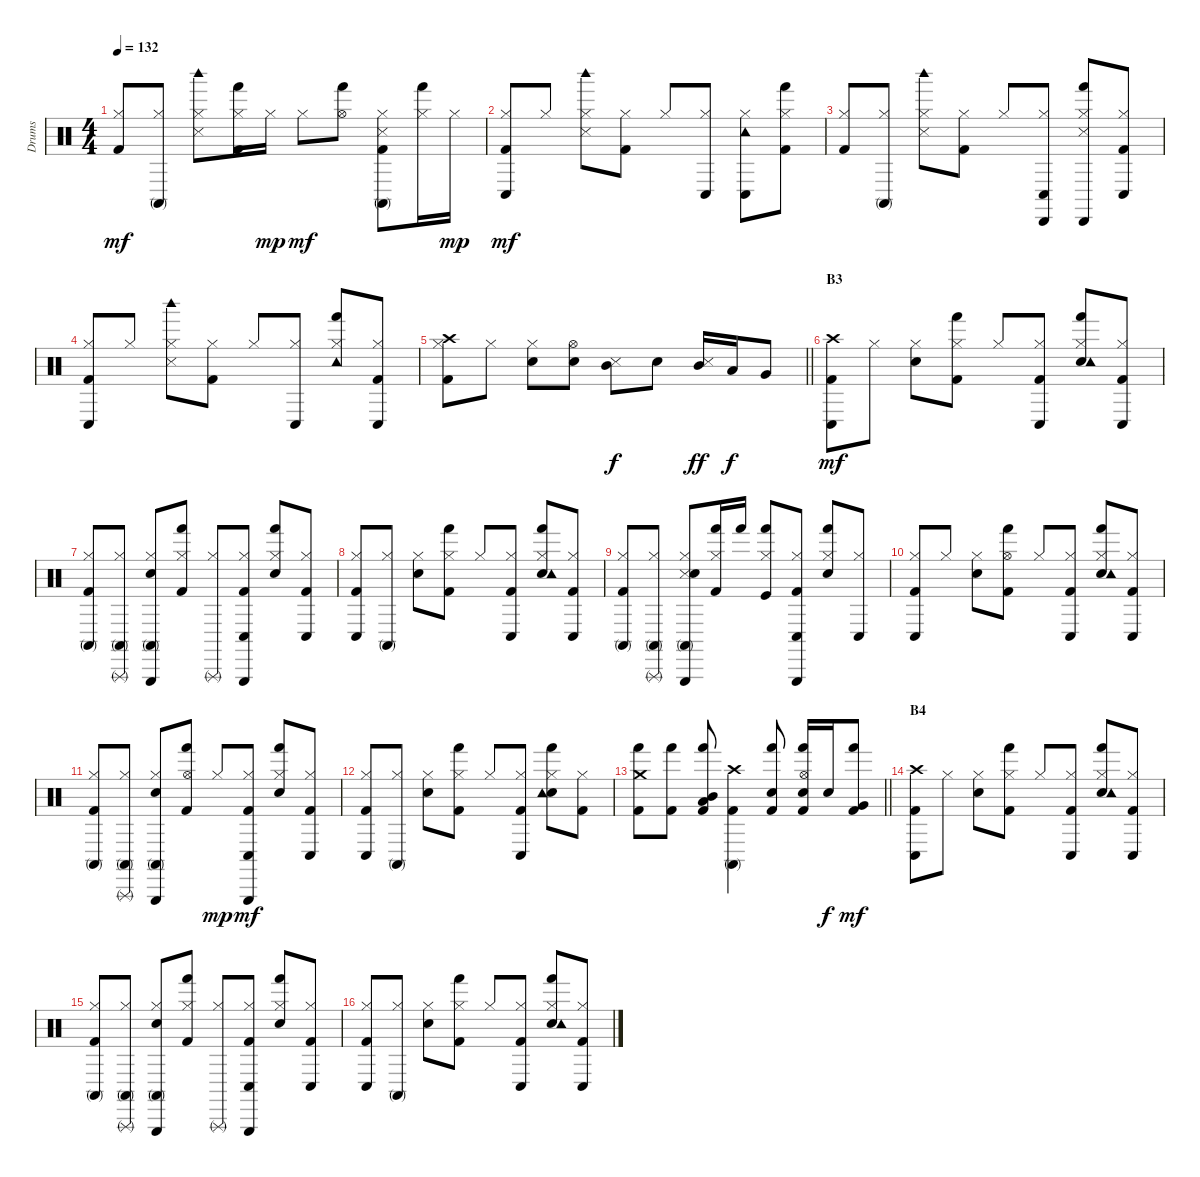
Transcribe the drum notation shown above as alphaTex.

\track ("Drums" "Drums") {instrument percussion}
\staff {score}
\articulation defaults
\ts (4 4)
\tempo 132
\clef neutral
\ks c
("Hi-Hat (closed)" "Kick (hit) 2").8{dy mf} ("Hi-Hat (closed)" "Conga high (mute)").8 ("Hi-Hat (closed)" "Snare (side stick) 3" "Woodblock high (hit)").8 ("Hi-Hat (closed)" "Kick (hit) 2" "Hand (hit)").16 "Hi-Hat (closed)".16{dy mp} "Hi-Hat (closed)".8{dy mf} ("Hi-Hat (open)" "Hand (hit)").8 ("Hi-Hat (closed)" "Snare (side stick) 3" "Kick (hit) 2" "Conga high (mute)").8 ("Hi-Hat (closed)" "Hand (hit)").16 "Hi-Hat (closed)".16{dy mp} |
("Hi-Hat (closed)" "Kick (hit) 2" "Conga low (hit)").8{dy mf} "Hi-Hat (closed)".8 ("Hi-Hat (closed)" "Snare (side stick) 3" "Woodblock high (hit)").8 ("Hi-Hat (closed)" "Kick (hit) 2").8 "Hi-Hat (closed)".8 ("Hi-Hat (closed)" "Conga low (hit)").8 ("Hi-Hat (closed)" "Tambourine (hit)" "Conga low (hit)").8 ("Hi-Hat (closed)" "Kick (hit) 2" "Hand (hit)").8 |
("Hi-Hat (closed)" "Kick (hit) 2").8 ("Hi-Hat (closed)" "Conga high (mute)").8 ("Hi-Hat (closed)" "Snare (side stick) 3" "Woodblock high (hit)").8 ("Hi-Hat (closed)" "Kick (hit) 2").8 "Hi-Hat (closed)".8 ("Hi-Hat (closed)" "Cabasa (hit)" "Conga low (hit)").8 ("Hi-Hat (closed)" "Snare (side stick) 3" "Cabasa (hit)" "Hand (hit)").8 ("Hi-Hat (closed)" "Kick (hit) 2" "Conga low (hit)").8 |
("Hi-Hat (closed)" "Kick (hit) 2" "Conga low (hit)").8 "Hi-Hat (closed)".8 ("Hi-Hat (closed)" "Snare (side stick) 3" "Woodblock high (hit)").8 ("Hi-Hat (closed)" "Kick (hit) 2").8 "Hi-Hat (closed)".8 ("Hi-Hat (closed)" "Conga low (hit)").8 ("Hi-Hat (closed)" "Tambourine (hit)" "Hand (hit)").8 ("Hi-Hat (closed)" "Kick (hit) 2" "Conga low (hit)").8 |
\barLineRight lightlight
("Hi-Hat (closed)" "Crash high (hit)" "Kick (hit) 2").8 "Hi-Hat (closed)".8 ("Hi-Hat (closed)" "Electric Snare (hit)").8 ("Hi-Hat (open)" "Electric Snare (hit)").8 ("Snare (side stick) 3" "Mid Tom (hit)").8{dy f} "Electric Snare (hit)".8 ("Snare (side stick) 3" "Mid Tom (hit)").16{dy ff} "Low Tom (hit)".16{dy f} "Very Low Tom (hit)".8 |
\section ("" "B3")
("Crash high (hit)" "Kick (hit) 2" "Conga low (hit)").8{dy mf} "Hi-Hat (closed)".8 ("Hi-Hat (closed)" "Electric Snare (hit)").8 ("Hi-Hat (closed)" "Kick (hit) 2" "Hand (hit)").8 "Hi-Hat (closed)".8 ("Hi-Hat (closed)" "Kick (hit) 2" "Conga low (hit)").8 ("Hi-Hat (closed)" "Electric Snare (hit)" "Tambourine (hit)" "Hand (hit)").8 ("Hi-Hat (closed)" "Kick (hit) 2" "Conga low (hit)").8 |
("Hi-Hat (closed)" "Kick (hit) 2" "Conga high (mute)").8 ("Hi-Hat (closed)" "Triangle (rnute)" "Conga high (mute)").8 ("Hi-Hat (closed)" "Electric Snare (hit)" "Triangle (hit)" "Conga high (mute)").8 ("Hi-Hat (closed)" "Kick (hit) 2" "Hand (hit)").8 ("Hi-Hat (closed)" "Triangle (rnute)").8 ("Hi-Hat (closed)" "Kick (hit) 2" "Triangle (hit)" "Conga low (hit)").8 ("Hi-Hat (closed)" "Electric Snare (hit)" "Hand (hit)").8 ("Hi-Hat (closed)" "Kick (hit) 2" "Conga low (hit)").8 |
("Hi-Hat (closed)" "Kick (hit) 2" "Conga low (hit)").8 ("Hi-Hat (closed)" "Conga high (mute)").8 ("Hi-Hat (closed)" "Electric Snare (hit)").8 ("Hi-Hat (closed)" "Kick (hit) 2" "Hand (hit)").8 "Hi-Hat (closed)".8 ("Hi-Hat (closed)" "Kick (hit) 2" "Conga low (hit)").8 ("Hi-Hat (closed)" "Electric Snare (hit)" "Tambourine (hit)" "Hand (hit)").8 ("Hi-Hat (closed)" "Kick (hit) 2" "Conga low (hit)").8 |
("Hi-Hat (closed)" "Kick (hit) 2" "Conga high (mute)").8 ("Hi-Hat (closed)" "Triangle (rnute)" "Conga high (mute)").8 ("Hi-Hat (closed)" "Snare (side stick) 3" "Electric Snare (hit)" "Triangle (hit)" "Conga high (mute)").8 ("Hi-Hat (closed)" "Kick (hit) 2" "Hand (hit)").16 "Hand (hit)".16 ("Hi-Hat (closed)" "Kick (hit)" "Hand (hit)").8 ("Hi-Hat (closed)" "Kick (hit) 2" "Triangle (hit)" "Conga low (hit)").8 ("Hi-Hat (closed)" "Electric Snare (hit)" "Hand (hit)").8 ("Hi-Hat (closed)" "Conga low (hit)").8 |
("Hi-Hat (closed)" "Kick (hit) 2" "Conga low (hit)").8 "Hi-Hat (closed)".8 ("Hi-Hat (closed)" "Electric Snare (hit)").8 ("Hi-Hat (open)" "Kick (hit) 2" "Hand (hit)").8 "Hi-Hat (closed)".8 ("Hi-Hat (closed)" "Kick (hit) 2" "Conga low (hit)").8 ("Hi-Hat (closed)" "Electric Snare (hit)" "Tambourine (hit)" "Hand (hit)").8 ("Hi-Hat (closed)" "Kick (hit) 2" "Conga low (hit)").8 |
("Hi-Hat (closed)" "Kick (hit) 2" "Conga high (mute)").8 ("Hi-Hat (closed)" "Triangle (rnute)" "Conga high (mute)").8 ("Hi-Hat (closed)" "Electric Snare (hit)" "Triangle (hit)" "Conga high (mute)").8 ("Hi-Hat (open)" "Kick (hit) 2" "Hand (hit)").8 "Hi-Hat (closed)".8{dy mp} ("Hi-Hat (closed)" "Kick (hit) 2" "Triangle (hit)" "Conga low (hit)").8{dy mf} ("Hi-Hat (closed)" "Electric Snare (hit)" "Hand (hit)").8 ("Hi-Hat (closed)" "Kick (hit) 2" "Conga low (hit)").8 |
("Hi-Hat (closed)" "Kick (hit) 2" "Conga low (hit)").8 ("Hi-Hat (closed)" "Conga high (mute)").8 ("Hi-Hat (closed)" "Electric Snare (hit)").8 ("Hi-Hat (closed)" "Kick (hit) 2" "Hand (hit)").8 "Hi-Hat (closed)".8 ("Hi-Hat (closed)" "Kick (hit) 2" "Conga low (hit)").8 ("Hi-Hat (closed)" "Electric Snare (hit)" "Tambourine (hit)" "Hand (hit)").8 ("Hi-Hat (closed)" "Kick (hit) 2").8 |
\barLineRight lightlight
("Crash medium (hit)" "Kick (hit) 2" "Hand (hit)").8 ("Kick (hit) 2" "Hand (hit)").8 ("Low Tom (hit)" "Kick (hit) 2" "Mid Tom (hit)" "Hand (hit)").8 ("Crash high (hit)" "Kick (hit) 2" "Conga high (mute)").4 ("Electric Snare (hit)" "Kick (hit) 2" "Hand (hit)").8 ("Hi-Hat (open)" "Electric Snare (hit)" "Kick (hit) 2" "Hand (hit)").16 "Electric Snare (hit)".16{dy f} ("Kick (hit) 2" "Very Low Tom (hit)" "Hand (hit)").8{dy mf} |
\section ("" "B4")
("Crash high (hit)" "Kick (hit) 2" "Conga low (hit)").8 "Hi-Hat (closed)".8 ("Hi-Hat (closed)" "Electric Snare (hit)").8 ("Hi-Hat (closed)" "Kick (hit) 2" "Hand (hit)").8 "Hi-Hat (closed)".8 ("Hi-Hat (closed)" "Kick (hit) 2" "Conga low (hit)").8 ("Hi-Hat (closed)" "Electric Snare (hit)" "Tambourine (hit)" "Hand (hit)").8 ("Hi-Hat (closed)" "Kick (hit) 2" "Conga low (hit)").8 |
("Hi-Hat (closed)" "Kick (hit) 2" "Conga high (mute)").8 ("Hi-Hat (closed)" "Triangle (rnute)" "Conga high (mute)").8 ("Hi-Hat (closed)" "Electric Snare (hit)" "Triangle (hit)" "Conga high (mute)").8 ("Hi-Hat (closed)" "Kick (hit) 2" "Hand (hit)").8 ("Hi-Hat (closed)" "Triangle (rnute)").8 ("Hi-Hat (closed)" "Kick (hit) 2" "Triangle (hit)" "Conga low (hit)").8 ("Hi-Hat (closed)" "Electric Snare (hit)" "Hand (hit)").8 ("Hi-Hat (closed)" "Kick (hit) 2" "Conga low (hit)").8 |
("Hi-Hat (closed)" "Kick (hit) 2" "Conga low (hit)").8 ("Hi-Hat (closed)" "Conga high (mute)").8 ("Hi-Hat (closed)" "Electric Snare (hit)").8 ("Hi-Hat (closed)" "Kick (hit) 2" "Hand (hit)").8 "Hi-Hat (closed)".8 ("Hi-Hat (closed)" "Kick (hit) 2" "Conga low (hit)").8 ("Hi-Hat (closed)" "Electric Snare (hit)" "Tambourine (hit)" "Hand (hit)").8 ("Hi-Hat (closed)" "Kick (hit) 2" "Conga low (hit)").8
